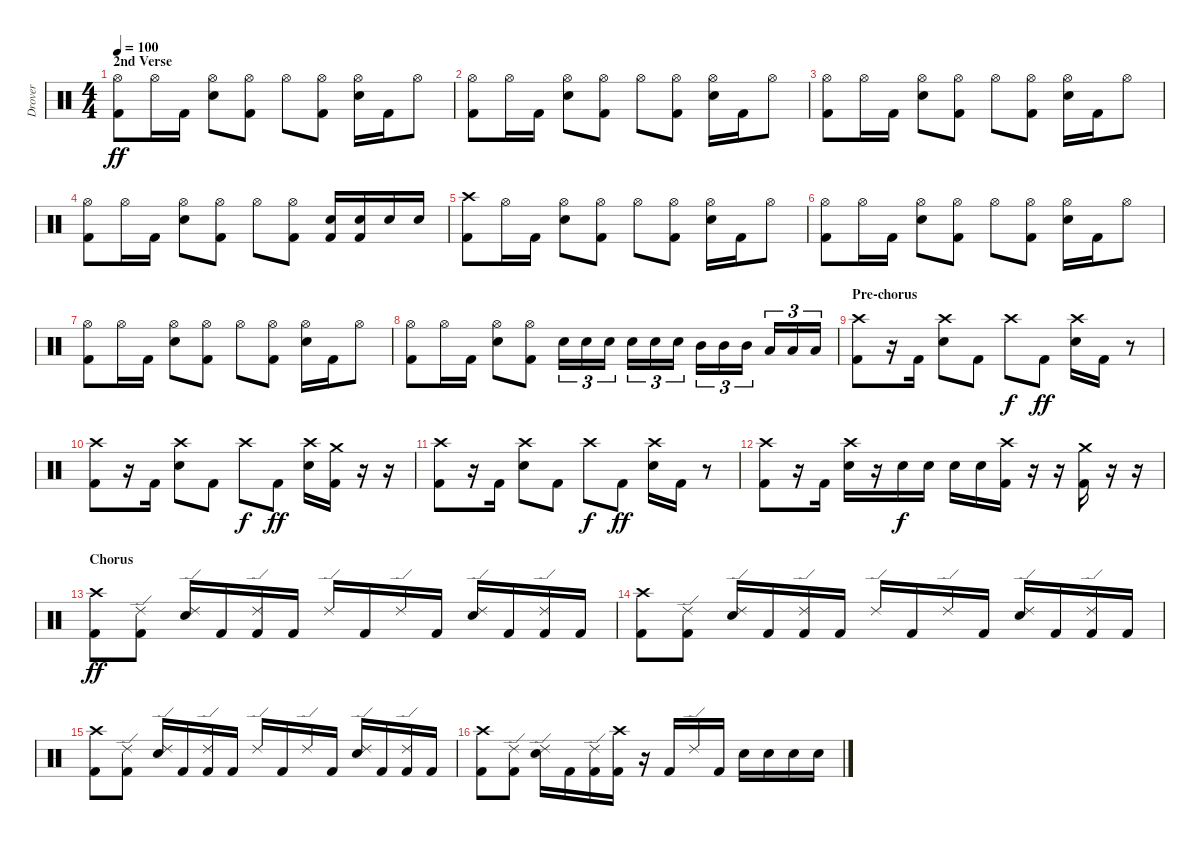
\track ("Drover" "Drover") {instrument percussion}
\staff {score}
\articulation defaults
\ts (4 4)
\section ("" "2nd Verse")
\tempo 100
\clef neutral
\ks c
("Hi-Hat (open)" "Kick (hit) 2").8{dy ff} "Hi-Hat (open)".16 "Kick (hit) 2".16 ("Hi-Hat (open)" "Electric Snare (hit)").8 ("Hi-Hat (open)" "Kick (hit) 2").8 "Hi-Hat (open)".8 ("Hi-Hat (open)" "Kick (hit) 2").8 ("Hi-Hat (open)" "Electric Snare (hit)").16 "Kick (hit) 2".16 "Hi-Hat (open)".8 |
("Hi-Hat (open)" "Kick (hit) 2").8 "Hi-Hat (open)".16 "Kick (hit) 2".16 ("Hi-Hat (open)" "Electric Snare (hit)").8 ("Hi-Hat (open)" "Kick (hit) 2").8 "Hi-Hat (open)".8 ("Hi-Hat (open)" "Kick (hit) 2").8 ("Hi-Hat (open)" "Electric Snare (hit)").16 "Kick (hit) 2".16 "Hi-Hat (open)".8 |
("Hi-Hat (open)" "Kick (hit) 2").8 "Hi-Hat (open)".16 "Kick (hit) 2".16 ("Hi-Hat (open)" "Electric Snare (hit)").8 ("Hi-Hat (open)" "Kick (hit) 2").8 "Hi-Hat (open)".8 ("Hi-Hat (open)" "Kick (hit) 2").8 ("Hi-Hat (open)" "Electric Snare (hit)").16 "Kick (hit) 2".16 "Hi-Hat (open)".8 |
("Hi-Hat (open)" "Kick (hit) 2").8 "Hi-Hat (open)".16 "Kick (hit) 2".16 ("Hi-Hat (open)" "Electric Snare (hit)").8 ("Hi-Hat (open)" "Kick (hit) 2").8 "Hi-Hat (open)".8 ("Hi-Hat (open)" "Kick (hit) 2").8 ("Electric Snare (hit)" "Kick (hit) 2").16 ("Electric Snare (hit)" "Kick (hit) 2").16 "Electric Snare (hit)".16 "Electric Snare (hit)".16 |
("Crash high (hit)" "Kick (hit) 2").8 "Hi-Hat (open)".16 "Kick (hit) 2".16 ("Hi-Hat (open)" "Electric Snare (hit)").8 ("Hi-Hat (open)" "Kick (hit) 2").8 "Hi-Hat (open)".8 ("Hi-Hat (open)" "Kick (hit) 2").8 ("Hi-Hat (open)" "Electric Snare (hit)").16 "Kick (hit) 2".16 "Hi-Hat (open)".8 |
("Hi-Hat (open)" "Kick (hit) 2").8 "Hi-Hat (open)".16 "Kick (hit) 2".16 ("Hi-Hat (open)" "Electric Snare (hit)").8 ("Hi-Hat (open)" "Kick (hit) 2").8 "Hi-Hat (open)".8 ("Hi-Hat (open)" "Kick (hit) 2").8 ("Hi-Hat (open)" "Electric Snare (hit)").16 "Kick (hit) 2".16 "Hi-Hat (open)".8 |
("Hi-Hat (open)" "Kick (hit) 2").8 "Hi-Hat (open)".16 "Kick (hit) 2".16 ("Hi-Hat (open)" "Electric Snare (hit)").8 ("Hi-Hat (open)" "Kick (hit) 2").8 "Hi-Hat (open)".8 ("Hi-Hat (open)" "Kick (hit) 2").8 ("Hi-Hat (open)" "Electric Snare (hit)").16 "Kick (hit) 2".16 "Hi-Hat (open)".8 |
("Hi-Hat (open)" "Kick (hit) 2").8 "Hi-Hat (open)".16 "Kick (hit) 2".16 ("Hi-Hat (open)" "Electric Snare (hit)").8 ("Hi-Hat (open)" "Kick (hit) 2").8 "Electric Snare (hit)".16{tu (3 2)} "Electric Snare (hit)".16{tu (3 2)} "Electric Snare (hit)".16{tu (3 2)} "Electric Snare (hit)".16{tu (3 2)} "Electric Snare (hit)".16{tu (3 2)} "Electric Snare (hit)".16{tu (3 2)} "Mid Tom (hit)".16{tu (3 2)} "Mid Tom (hit)".16{tu (3 2)} "Mid Tom (hit)".16{tu (3 2)} "Low Tom (hit)".16{tu (3 2)} "Low Tom (hit)".16{tu (3 2)} "Low Tom (hit)".16{tu (3 2)} |
\section ("" "Pre-chorus")
("Crash high (hit)" "Kick (hit) 2").8 r.16 "Kick (hit) 2".16 ("Crash high (hit)" "Electric Snare (hit)").8 "Kick (hit) 2".8 "Crash high (hit)".8{dy f} "Kick (hit) 2".8{dy ff} ("Crash high (hit)" "Electric Snare (hit)").16 "Kick (hit) 2".16 r.8 |
("Crash high (hit)" "Kick (hit) 2").8 r.16 "Kick (hit) 2".16 ("Crash high (hit)" "Electric Snare (hit)").8 "Kick (hit) 2".8 "Crash high (hit)".8{dy f} "Kick (hit) 2".8{dy ff} ("Crash high (hit)" "Electric Snare (hit)").16 ("Crash medium (hit)" "Kick (hit) 2").16 r.16 r.16 |
("Crash high (hit)" "Kick (hit) 2").8 r.16 "Kick (hit) 2".16 ("Crash high (hit)" "Electric Snare (hit)").8 "Kick (hit) 2".8 "Crash high (hit)".8{dy f} "Kick (hit) 2".8{dy ff} ("Crash high (hit)" "Electric Snare (hit)").16 "Kick (hit) 2".16 r.8 |
("Crash high (hit)" "Kick (hit) 2").8 r.16 "Kick (hit) 2".16 ("Crash high (hit)" "Electric Snare (hit)").16 r.16 "Electric Snare (hit)".16{dy f} "Electric Snare (hit)".16 "Electric Snare (hit)".16 "Electric Snare (hit)".16 ("Crash high (hit)" "Kick (hit) 2").16 r.16 r.16 ("Crash medium (hit)" "Kick (hit) 2").16 r.16 r.16 |
\section ("" "Chorus")
("Crash high (hit)" "Kick (hit) 2").8{dy ff} ("Ride (edge) 2" "Kick (hit) 2").8 ("Ride (edge) 2" "Electric Snare (hit)").16 "Kick (hit) 2".16 ("Ride (edge) 2" "Kick (hit) 2").16 "Kick (hit) 2".16 "Ride (edge) 2".16 "Kick (hit) 2".16 "Ride (edge) 2".16 "Kick (hit) 2".16 ("Ride (edge) 2" "Electric Snare (hit)").16 "Kick (hit) 2".16 ("Ride (edge) 2" "Kick (hit) 2").16 "Kick (hit) 2".16 |
("Crash high (hit)" "Kick (hit) 2").8 ("Ride (edge) 2" "Kick (hit) 2").8 ("Ride (edge) 2" "Electric Snare (hit)").16 "Kick (hit) 2".16 ("Ride (edge) 2" "Kick (hit) 2").16 "Kick (hit) 2".16 "Ride (edge) 2".16 "Kick (hit) 2".16 "Ride (edge) 2".16 "Kick (hit) 2".16 ("Ride (edge) 2" "Electric Snare (hit)").16 "Kick (hit) 2".16 ("Ride (edge) 2" "Kick (hit) 2").16 "Kick (hit) 2".16 |
("Crash high (hit)" "Kick (hit) 2").8 ("Ride (edge) 2" "Kick (hit) 2").8 ("Ride (edge) 2" "Electric Snare (hit)").16 "Kick (hit) 2".16 ("Ride (edge) 2" "Kick (hit) 2").16 "Kick (hit) 2".16 "Ride (edge) 2".16 "Kick (hit) 2".16 "Ride (edge) 2".16 "Kick (hit) 2".16 ("Ride (edge) 2" "Electric Snare (hit)").16 "Kick (hit) 2".16 ("Ride (edge) 2" "Kick (hit) 2").16 "Kick (hit) 2".16 |
("Crash high (hit)" "Kick (hit) 2").8 ("Ride (edge) 2" "Kick (hit) 2").8 ("Ride (edge) 2" "Electric Snare (hit)").16 "Kick (hit) 2".16 ("Ride (edge) 2" "Kick (hit) 2").16 ("Crash high (hit)" "Kick (hit) 2").16 r.16 "Kick (hit) 2".16 "Ride (edge) 2".16 "Kick (hit) 2".16 "Electric Snare (hit)".16 "Electric Snare (hit)".16 "Electric Snare (hit)".16 "Electric Snare (hit)".16
